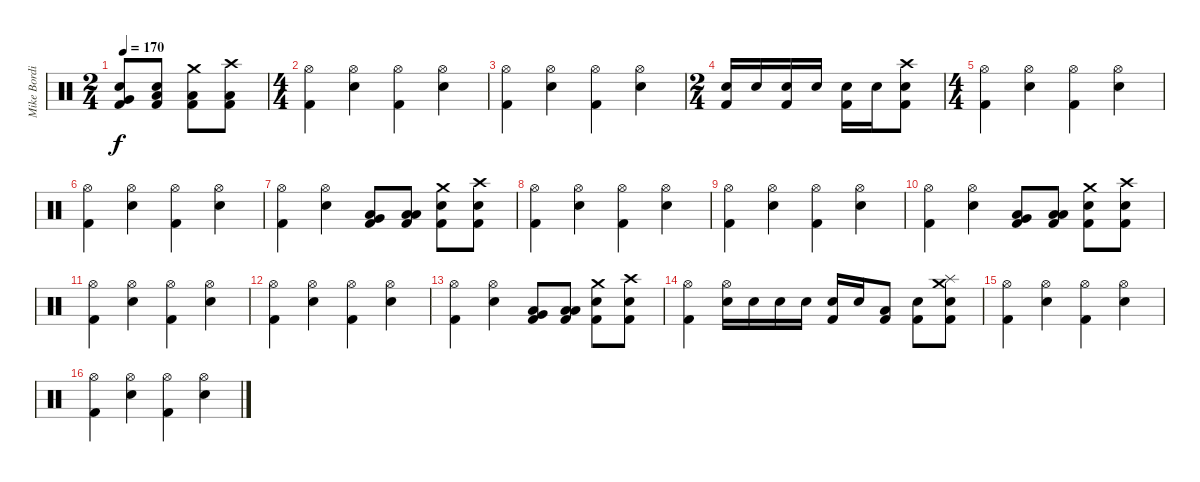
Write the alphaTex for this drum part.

\track ("Mike Bordin" "Mike Bordi") {instrument percussion}
\staff {score}
\articulation defaults
\ts (2 4)
\tempo 170
\clef neutral
\ks c
("Electric Snare (hit)" "Very Low Tom (hit)" "Kick (hit) 2").8{dy f} ("Electric Snare (hit)" "Low Tom (hit)" "Kick (hit) 2").8 ("Crash medium (hit)" "Low Floor Tom (hit)" "Kick (hit) 2").8 ("Crash high (hit)" "Low Floor Tom (hit)" "Kick (hit) 2").8 |
\ts (4 4)
("Hi-Hat (open)" "Kick (hit) 2").4 ("Hi-Hat (open)" "Electric Snare (hit)").4 ("Hi-Hat (open)" "Kick (hit) 2").4 ("Hi-Hat (open)" "Electric Snare (hit)").4 |
("Hi-Hat (open)" "Kick (hit) 2").4 ("Hi-Hat (open)" "Electric Snare (hit)").4 ("Hi-Hat (open)" "Kick (hit) 2").4 ("Hi-Hat (open)" "Electric Snare (hit)").4 |
\ts (2 4)
("Electric Snare (hit)" "Kick (hit) 2").16 "Electric Snare (hit)".16 ("Electric Snare (hit)" "Kick (hit) 2").16 "Electric Snare (hit)".16 ("Electric Snare (hit)" "Kick (hit) 2").16 "Electric Snare (hit)".16 ("Crash high (hit)" "Electric Snare (hit)" "Kick (hit) 2").8 |
\ts (4 4)
("Hi-Hat (open)" "Kick (hit) 2").4 ("Hi-Hat (open)" "Electric Snare (hit)").4 ("Hi-Hat (open)" "Kick (hit) 2").4 ("Hi-Hat (open)" "Electric Snare (hit)").4 |
("Hi-Hat (open)" "Kick (hit) 2").4 ("Hi-Hat (open)" "Electric Snare (hit)").4 ("Hi-Hat (open)" "Kick (hit) 2").4 ("Hi-Hat (open)" "Electric Snare (hit)").4 |
("Hi-Hat (open)" "Kick (hit) 2").4 ("Hi-Hat (open)" "Electric Snare (hit)").4 ("Low Floor Tom (hit)" "Very Low Tom (hit)" "Kick (hit) 2").8 ("Low Floor Tom (hit)" "Low Tom (hit)" "Kick (hit) 2").8 ("Crash medium (hit)" "Electric Snare (hit)" "Kick (hit) 2").8 ("Crash high (hit)" "Electric Snare (hit)" "Kick (hit) 2").8 |
("Hi-Hat (open)" "Kick (hit) 2").4 ("Hi-Hat (open)" "Electric Snare (hit)").4 ("Hi-Hat (open)" "Kick (hit) 2").4 ("Hi-Hat (open)" "Electric Snare (hit)").4 |
("Hi-Hat (open)" "Kick (hit) 2").4 ("Hi-Hat (open)" "Electric Snare (hit)").4 ("Hi-Hat (open)" "Kick (hit) 2").4 ("Hi-Hat (open)" "Electric Snare (hit)").4 |
("Hi-Hat (open)" "Kick (hit) 2").4 ("Hi-Hat (open)" "Electric Snare (hit)").4 ("Low Floor Tom (hit)" "Very Low Tom (hit)" "Kick (hit) 2").8 ("Low Floor Tom (hit)" "Low Tom (hit)" "Kick (hit) 2").8 ("Crash medium (hit)" "Electric Snare (hit)" "Kick (hit) 2").8 ("Crash high (hit)" "Electric Snare (hit)" "Kick (hit) 2").8 |
("Hi-Hat (open)" "Kick (hit) 2").4 ("Hi-Hat (open)" "Electric Snare (hit)").4 ("Hi-Hat (open)" "Kick (hit) 2").4 ("Hi-Hat (open)" "Electric Snare (hit)").4 |
("Hi-Hat (open)" "Kick (hit) 2").4 ("Hi-Hat (open)" "Electric Snare (hit)").4 ("Hi-Hat (open)" "Kick (hit) 2").4 ("Hi-Hat (open)" "Electric Snare (hit)").4 |
("Hi-Hat (open)" "Kick (hit) 2").4 ("Hi-Hat (open)" "Electric Snare (hit)").4 ("Low Floor Tom (hit)" "Very Low Tom (hit)" "Kick (hit) 2").8 ("Low Floor Tom (hit)" "Low Tom (hit)" "Kick (hit) 2").8 ("Crash medium (hit)" "Electric Snare (hit)" "Kick (hit) 2").8 ("Crash high (hit)" "Electric Snare (hit)" "Kick (hit) 2").8 |
("Hi-Hat (open)" "Kick (hit) 2").4 ("Hi-Hat (open)" "Electric Snare (hit)").16 "Electric Snare (hit)".16 "Electric Snare (hit)".16 "Electric Snare (hit)".16 ("Electric Snare (hit)" "Kick (hit) 2").16 "Electric Snare (hit)".16 ("Low Floor Tom (hit)" "Kick (hit) 2").8 ("Electric Snare (hit)" "Kick (hit) 2").8 ("Crash medium (hit)" "Splash (hit)" "Electric Snare (hit)" "Kick (hit) 2").8 |
("Hi-Hat (open)" "Kick (hit) 2").4 ("Hi-Hat (open)" "Electric Snare (hit)").4 ("Hi-Hat (open)" "Kick (hit) 2").4 ("Hi-Hat (open)" "Electric Snare (hit)").4 |
("Hi-Hat (open)" "Kick (hit) 2").4 ("Hi-Hat (open)" "Electric Snare (hit)").4 ("Hi-Hat (open)" "Kick (hit) 2").4 ("Hi-Hat (open)" "Electric Snare (hit)").4
